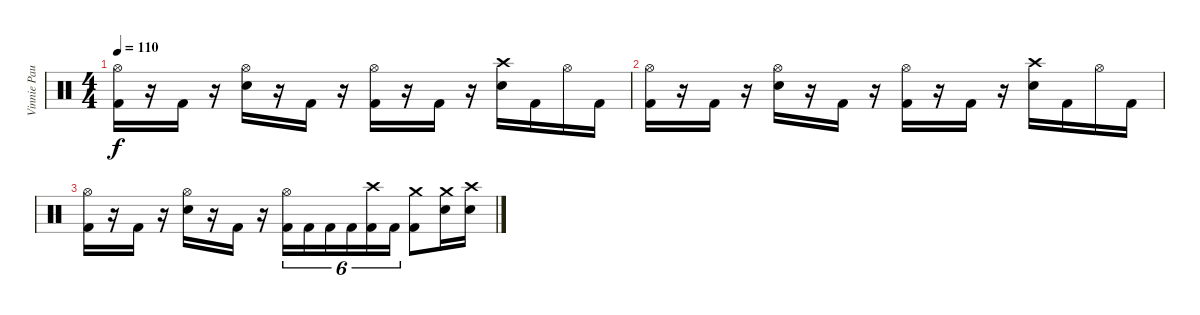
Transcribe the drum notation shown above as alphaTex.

\track ("Vinnie Paul" "Vinnie Pau") {instrument percussion}
\staff {score}
\articulation defaults
\ts (4 4)
\tempo 110
\clef neutral
\ks c
("Hi-Hat (open)" "Kick (hit) 2").16{dy f} r.16 "Kick (hit) 2".16 r.16 ("Hi-Hat (open)" "Electric Snare (hit)").16 r.16 "Kick (hit) 2".16 r.16 ("Hi-Hat (open)" "Kick (hit) 2").16 r.16 "Kick (hit) 2".16 r.16 ("Crash high (hit)" "Electric Snare (hit)").16 "Kick (hit) 2".16 "Hi-Hat (open)".16 "Kick (hit) 2".16 |
("Hi-Hat (open)" "Kick (hit) 2").16 r.16 "Kick (hit) 2".16 r.16 ("Hi-Hat (open)" "Electric Snare (hit)").16 r.16 "Kick (hit) 2".16 r.16 ("Hi-Hat (open)" "Kick (hit) 2").16 r.16 "Kick (hit) 2".16 r.16 ("Crash high (hit)" "Electric Snare (hit)").16 "Kick (hit) 2".16 "Hi-Hat (open)".16 "Kick (hit) 2".16 |
("Hi-Hat (open)" "Kick (hit) 2").16 r.16 "Kick (hit) 2".16 r.16 ("Hi-Hat (open)" "Electric Snare (hit)").16 r.16 "Kick (hit) 2".16 r.16 ("Hi-Hat (open)" "Kick (hit) 2").16{tu (6 4)} "Kick (hit) 2".16{tu (6 4)} "Kick (hit) 2".16{tu (6 4)} "Kick (hit) 2".16{tu (6 4)} ("Crash high (hit)" "Kick (hit) 2").16{tu (6 4)} "Kick (hit) 2".16{tu (6 4)} ("Crash medium (hit)" "Kick (hit) 2").8 ("Crash medium (hit)" "Electric Snare (hit)").16 ("Crash high (hit)" "Electric Snare (hit)").16
